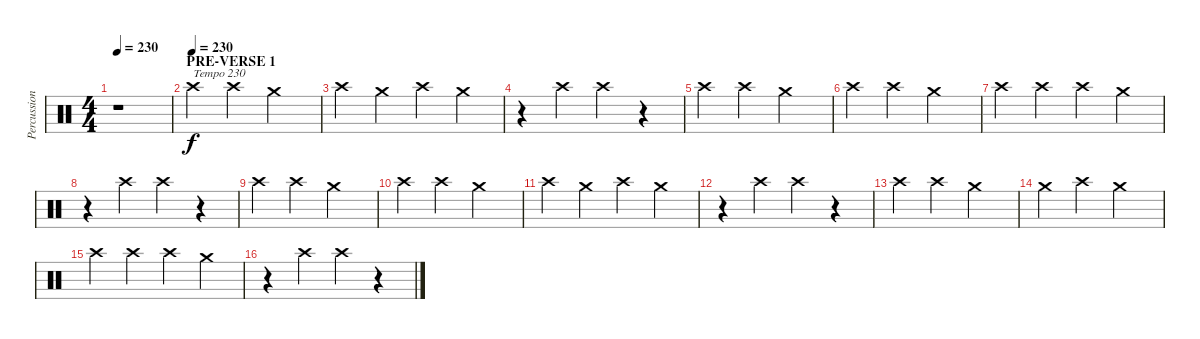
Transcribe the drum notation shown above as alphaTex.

\track ("Percussions" "Percussion") {instrument percussion}
\staff {score}
\articulation defaults
\ts (4 4)
\tempo 230
\clef neutral
\ks c
r.1{dy fff} |
\section ("" "PRE-VERSE 1")
\tempo (230)
"Crash high (hit)".4{txt "Tempo 230" dy f} "Crash high (hit)".4 "Crash medium (hit)".2 |
"Crash high (hit)".4 "Crash medium (hit)".4 "Crash high (hit)".4 "Crash medium (hit)".4 |
r.4 "Crash high (hit)".4 "Crash high (hit)".4 r.4 |
"Crash high (hit)".4 "Crash high (hit)".4 "Crash medium (hit)".2 |
"Crash high (hit)".4 "Crash high (hit)".4 "Crash medium (hit)".2 |
"Crash high (hit)".4 "Crash high (hit)".4 "Crash high (hit)".4 "Crash medium (hit)".4 |
r.4 "Crash high (hit)".4 "Crash high (hit)".4 r.4 |
"Crash high (hit)".4 "Crash high (hit)".4 "Crash medium (hit)".2 |
"Crash high (hit)".4 "Crash high (hit)".4 "Crash medium (hit)".2 |
"Crash high (hit)".4 "Crash medium (hit)".4 "Crash high (hit)".4 "Crash medium (hit)".4 |
r.4 "Crash high (hit)".4 "Crash high (hit)".4 r.4 |
"Crash high (hit)".4 "Crash high (hit)".4 "Crash medium (hit)".2 |
"Crash medium (hit)".4 "Crash high (hit)".4 "Crash medium (hit)".2 |
"Crash high (hit)".4 "Crash high (hit)".4 "Crash high (hit)".4 "Crash medium (hit)".4 |
r.4 "Crash high (hit)".4 "Crash high (hit)".4 r.4
